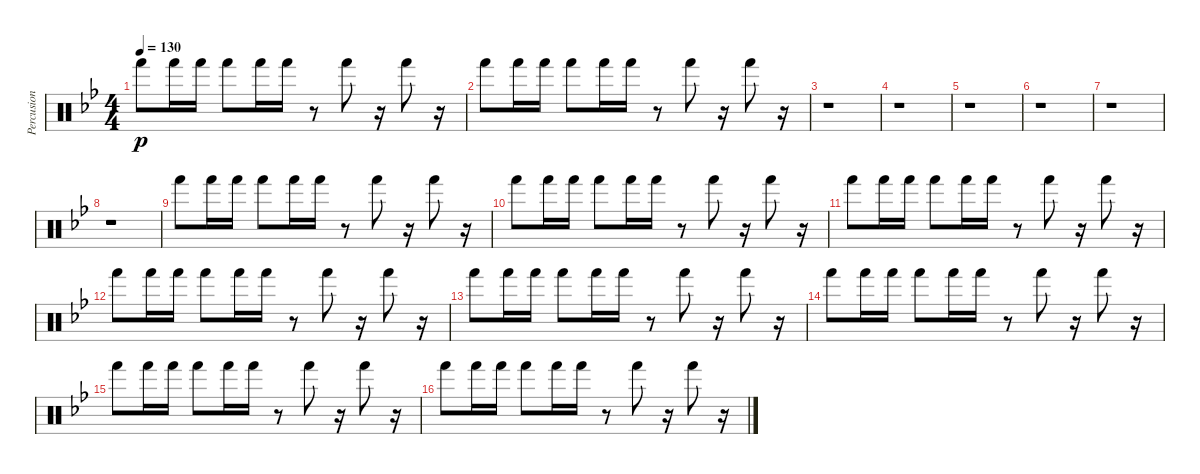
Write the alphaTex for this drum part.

\track ("Percusion III" "Percusion ") {instrument percussion}
\staff {score}
\articulation defaults
\ts (4 4)
\tempo 130
\clef neutral
\ks gminor "Hand (hit)".8{dy p} "Hand (hit)".16 "Hand (hit)".16 "Hand (hit)".8 "Hand (hit)".16 "Hand (hit)".16
r.8 "Hand (hit)".8 r.16 "Hand (hit)".8 r.16 |
"Hand (hit)".8 "Hand (hit)".16 "Hand (hit)".16 "Hand (hit)".8 "Hand (hit)".16 "Hand (hit)".16 r.8 "Hand (hit)".8 r.16 "Hand (hit)".8 r.16 |
r.1 |
r.1 |
r.1 |
r.1 |
r.1 |
r.1 |
"Hand (hit)".8 "Hand (hit)".16 "Hand (hit)".16 "Hand (hit)".8 "Hand (hit)".16 "Hand (hit)".16 r.8 "Hand (hit)".8 r.16 "Hand (hit)".8 r.16 |
"Hand (hit)".8 "Hand (hit)".16 "Hand (hit)".16 "Hand (hit)".8 "Hand (hit)".16 "Hand (hit)".16 r.8 "Hand (hit)".8 r.16 "Hand (hit)".8 r.16 |
"Hand (hit)".8 "Hand (hit)".16 "Hand (hit)".16 "Hand (hit)".8 "Hand (hit)".16 "Hand (hit)".16 r.8 "Hand (hit)".8 r.16 "Hand (hit)".8 r.16 |
"Hand (hit)".8 "Hand (hit)".16 "Hand (hit)".16 "Hand (hit)".8 "Hand (hit)".16 "Hand (hit)".16 r.8 "Hand (hit)".8 r.16 "Hand (hit)".8 r.16 |
"Hand (hit)".8 "Hand (hit)".16 "Hand (hit)".16 "Hand (hit)".8 "Hand (hit)".16 "Hand (hit)".16 r.8 "Hand (hit)".8 r.16 "Hand (hit)".8 r.16 |
"Hand (hit)".8 "Hand (hit)".16 "Hand (hit)".16 "Hand (hit)".8 "Hand (hit)".16 "Hand (hit)".16 r.8 "Hand (hit)".8 r.16 "Hand (hit)".8 r.16 |
"Hand (hit)".8 "Hand (hit)".16 "Hand (hit)".16 "Hand (hit)".8 "Hand (hit)".16 "Hand (hit)".16 r.8 "Hand (hit)".8 r.16 "Hand (hit)".8 r.16 |
"Hand (hit)".8 "Hand (hit)".16 "Hand (hit)".16 "Hand (hit)".8 "Hand (hit)".16 "Hand (hit)".16 r.8 "Hand (hit)".8 r.16 "Hand (hit)".8 r.16
